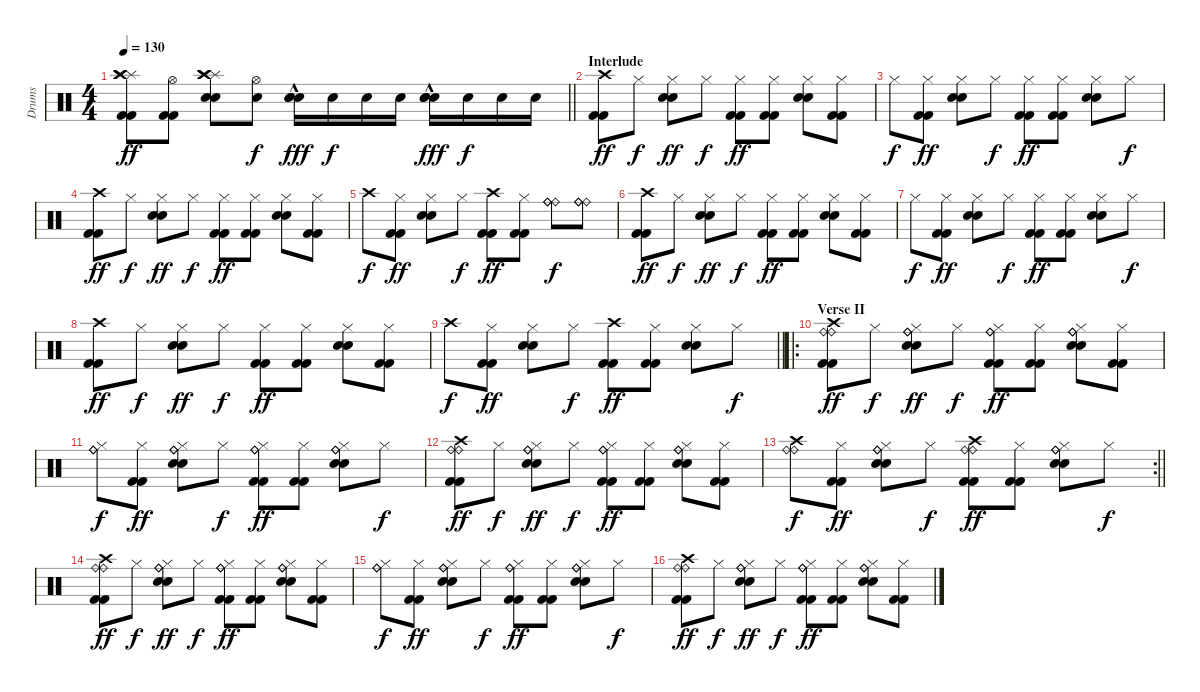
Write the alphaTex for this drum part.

\track ("Drums" "Drums") {instrument percussion}
\staff {score}
\articulation defaults
\ts (4 4)
\tempo 130
\clef neutral
\barLineRight lightlight
\ks c
("Kick (hit) 2" "Kick (hit) 2" "Splash (hit)" "Crash high (hit)" "Crash high (hit)").8{dy ff} ("Kick (hit) 2" "Kick (hit) 2" "Hi-Hat (open)").8 ("Electric Snare (hit)" "Electric Snare (hit)" "Splash (hit)" "Crash high (hit)" "Crash high (hit)").8 ("Electric Snare (hit)" "Hi-Hat (open)").8{dy f} ("Snare (hit) 2"{hac} "Electric Snare (hit)"{hac} "Snare (hit) 2"{hac}).16{dy fff} "Electric Snare (hit)".16{dy f} "Electric Snare (hit)".16 "Electric Snare (hit)".16 ("Snare (hit) 2"{hac} "Electric Snare (hit)"{hac} "Snare (hit) 2"{hac}).16{dy fff} "Electric Snare (hit)".16{dy f} "Electric Snare (hit)".16 "Electric Snare (hit)".16 |
\section ("" "Interlude")
("Kick (hit) 2" "Kick (hit) 2" "Crash high (hit)").8{dy ff} "Hi-Hat (closed)".8{dy f} ("Electric Snare (hit)" "Electric Snare (hit)" "Hi-Hat (closed)").8{dy ff} "Hi-Hat (closed)".8{dy f} ("Kick (hit) 2" "Kick (hit) 2" "Hi-Hat (closed)").8{dy ff} ("Kick (hit) 2" "Kick (hit) 2" "Hi-Hat (closed)").8 ("Electric Snare (hit)" "Electric Snare (hit)" "Hi-Hat (closed)").8 ("Kick (hit) 2" "Kick (hit) 2" "Hi-Hat (closed)").8 |
"Hi-Hat (closed)".8{dy f} ("Kick (hit) 2" "Kick (hit) 2" "Hi-Hat (closed)").8{dy ff} ("Electric Snare (hit)" "Electric Snare (hit)" "Hi-Hat (closed)").8 "Hi-Hat (closed)".8{dy f} ("Kick (hit) 2" "Kick (hit) 2" "Hi-Hat (closed)").8{dy ff} ("Kick (hit) 2" "Kick (hit) 2" "Hi-Hat (closed)").8 ("Electric Snare (hit)" "Electric Snare (hit)" "Hi-Hat (closed)").8 "Hi-Hat (closed)".8{dy f} |
("Kick (hit) 2" "Kick (hit) 2" "Crash high (hit)").8{dy ff} "Hi-Hat (closed)".8{dy f} ("Electric Snare (hit)" "Electric Snare (hit)" "Hi-Hat (closed)").8{dy ff} "Hi-Hat (closed)".8{dy f} ("Kick (hit) 2" "Kick (hit) 2" "Hi-Hat (closed)").8{dy ff} ("Kick (hit) 2" "Kick (hit) 2" "Hi-Hat (closed)").8 ("Electric Snare (hit)" "Electric Snare (hit)" "Hi-Hat (closed)").8 ("Kick (hit) 2" "Kick (hit) 2" "Hi-Hat (closed)").8 |
"Crash high (hit)".8{dy f} ("Kick (hit) 2" "Kick (hit) 2" "Hi-Hat (closed)").8{dy ff} ("Electric Snare (hit)" "Electric Snare (hit)" "Hi-Hat (closed)").8 "Hi-Hat (closed)".8{dy f} ("Kick (hit) 2" "Kick (hit) 2" "Crash high (hit)").8{dy ff} ("Kick (hit) 2" "Kick (hit) 2" "Hi-Hat (closed)").8 ("Ride (bell)" "Ride (bell)" "Ride (bell)").8{dy f} ("Ride (bell)" "Ride (bell)" "Ride (bell)").8 |
("Kick (hit) 2" "Kick (hit) 2" "Crash high (hit)").8{dy ff} "Hi-Hat (closed)".8{dy f} ("Electric Snare (hit)" "Electric Snare (hit)" "Hi-Hat (closed)").8{dy ff} "Hi-Hat (closed)".8{dy f} ("Kick (hit) 2" "Kick (hit) 2" "Hi-Hat (closed)").8{dy ff} ("Kick (hit) 2" "Kick (hit) 2" "Hi-Hat (closed)").8 ("Electric Snare (hit)" "Electric Snare (hit)" "Hi-Hat (closed)").8 ("Kick (hit) 2" "Kick (hit) 2" "Hi-Hat (closed)").8 |
"Hi-Hat (closed)".8{dy f} ("Kick (hit) 2" "Kick (hit) 2" "Hi-Hat (closed)").8{dy ff} ("Electric Snare (hit)" "Electric Snare (hit)" "Hi-Hat (closed)").8 "Hi-Hat (closed)".8{dy f} ("Kick (hit) 2" "Kick (hit) 2" "Hi-Hat (closed)").8{dy ff} ("Kick (hit) 2" "Kick (hit) 2" "Hi-Hat (closed)").8 ("Electric Snare (hit)" "Electric Snare (hit)" "Hi-Hat (closed)").8 "Hi-Hat (closed)".8{dy f} |
("Kick (hit) 2" "Kick (hit) 2" "Crash high (hit)").8{dy ff} "Hi-Hat (closed)".8{dy f} ("Electric Snare (hit)" "Electric Snare (hit)" "Hi-Hat (closed)").8{dy ff} "Hi-Hat (closed)".8{dy f} ("Kick (hit) 2" "Kick (hit) 2" "Hi-Hat (closed)").8{dy ff} ("Kick (hit) 2" "Kick (hit) 2" "Hi-Hat (closed)").8 ("Electric Snare (hit)" "Electric Snare (hit)" "Hi-Hat (closed)").8 ("Kick (hit) 2" "Kick (hit) 2" "Hi-Hat (closed)").8 |
\barLineRight lightlight "Crash high (hit)".8{dy f}
("Kick (hit) 2" "Kick (hit) 2" "Hi-Hat (closed)").8{dy ff} ("Electric Snare (hit)" "Electric Snare (hit)" "Hi-Hat (closed)").8 "Hi-Hat (closed)".8{dy f} ("Kick (hit) 2" "Kick (hit) 2" "Crash high (hit)").8{dy ff} ("Kick (hit) 2" "Kick (hit) 2" "Hi-Hat (closed)").8 ("Electric Snare (hit)" "Electric Snare (hit)" "Hi-Hat (closed)").8 "Hi-Hat (closed)".8{dy f} |
\ro
\section ("" "Verse II")
("Kick (hit) 2" "Kick (hit) 2" "Ride (bell)" "Ride (bell)" "Crash high (hit)").8{dy ff} "Hi-Hat (closed)".8{dy f} ("Electric Snare (hit)" "Electric Snare (hit)" "Ride (bell)" "Ride (bell)" "Hi-Hat (closed)").8{dy ff} "Hi-Hat (closed)".8{dy f} ("Kick (hit) 2" "Kick (hit) 2" "Ride (bell)" "Ride (bell)" "Hi-Hat (closed)").8{dy ff} ("Kick (hit) 2" "Kick (hit) 2" "Hi-Hat (closed)").8 ("Electric Snare (hit)" "Electric Snare (hit)" "Ride (bell)" "Ride (bell)" "Hi-Hat (closed)").8 ("Kick (hit) 2" "Kick (hit) 2" "Hi-Hat (closed)").8 |
("Ride (bell)" "Ride (bell)" "Hi-Hat (closed)").8{dy f} ("Kick (hit) 2" "Kick (hit) 2" "Hi-Hat (closed)").8{dy ff} ("Electric Snare (hit)" "Electric Snare (hit)" "Ride (bell)" "Ride (bell)" "Hi-Hat (closed)").8 "Hi-Hat (closed)".8{dy f} ("Kick (hit) 2" "Kick (hit) 2" "Ride (bell)" "Ride (bell)" "Hi-Hat (closed)").8{dy ff} ("Kick (hit) 2" "Kick (hit) 2" "Hi-Hat (closed)").8 ("Electric Snare (hit)" "Electric Snare (hit)" "Ride (bell)" "Ride (bell)" "Hi-Hat (closed)").8 "Hi-Hat (closed)".8{dy f} |
("Kick (hit) 2" "Kick (hit) 2" "Ride (bell)" "Ride (bell)" "Crash high (hit)").8{dy ff} "Hi-Hat (closed)".8{dy f} ("Electric Snare (hit)" "Electric Snare (hit)" "Ride (bell)" "Ride (bell)" "Hi-Hat (closed)").8{dy ff} "Hi-Hat (closed)".8{dy f} ("Kick (hit) 2" "Kick (hit) 2" "Ride (bell)" "Ride (bell)" "Hi-Hat (closed)").8{dy ff} ("Kick (hit) 2" "Kick (hit) 2" "Hi-Hat (closed)").8 ("Electric Snare (hit)" "Electric Snare (hit)" "Ride (bell)" "Ride (bell)" "Hi-Hat (closed)").8 ("Kick (hit) 2" "Kick (hit) 2" "Hi-Hat (closed)").8 |
\rc 2
\barLineRight lightlight
("Ride (bell)" "Ride (bell)" "Crash high (hit)").8{dy f} ("Kick (hit) 2" "Kick (hit) 2" "Hi-Hat (closed)").8{dy ff} ("Electric Snare (hit)" "Electric Snare (hit)" "Ride (bell)" "Ride (bell)" "Hi-Hat (closed)").8 "Hi-Hat (closed)".8{dy f} ("Kick (hit) 2" "Kick (hit) 2" "Ride (bell)" "Ride (bell)" "Crash high (hit)").8{dy ff} ("Kick (hit) 2" "Kick (hit) 2" "Hi-Hat (closed)").8 ("Electric Snare (hit)" "Electric Snare (hit)" "Ride (bell)" "Ride (bell)" "Hi-Hat (closed)").8 "Hi-Hat (closed)".8{dy f} |
("Kick (hit) 2" "Kick (hit) 2" "Ride (bell)" "Ride (bell)" "Crash high (hit)").8{dy ff} "Hi-Hat (closed)".8{dy f} ("Electric Snare (hit)" "Electric Snare (hit)" "Ride (bell)" "Ride (bell)" "Hi-Hat (closed)").8{dy ff} "Hi-Hat (closed)".8{dy f} ("Kick (hit) 2" "Kick (hit) 2" "Ride (bell)" "Ride (bell)" "Hi-Hat (closed)").8{dy ff} ("Kick (hit) 2" "Kick (hit) 2" "Hi-Hat (closed)").8 ("Electric Snare (hit)" "Electric Snare (hit)" "Ride (bell)" "Ride (bell)" "Hi-Hat (closed)").8 ("Kick (hit) 2" "Kick (hit) 2" "Hi-Hat (closed)").8 |
("Ride (bell)" "Ride (bell)" "Hi-Hat (closed)").8{dy f} ("Kick (hit) 2" "Kick (hit) 2" "Hi-Hat (closed)").8{dy ff} ("Electric Snare (hit)" "Electric Snare (hit)" "Ride (bell)" "Ride (bell)" "Hi-Hat (closed)").8 "Hi-Hat (closed)".8{dy f} ("Kick (hit) 2" "Kick (hit) 2" "Ride (bell)" "Ride (bell)" "Hi-Hat (closed)").8{dy ff} ("Kick (hit) 2" "Kick (hit) 2" "Hi-Hat (closed)").8 ("Electric Snare (hit)" "Electric Snare (hit)" "Ride (bell)" "Ride (bell)" "Hi-Hat (closed)").8 "Hi-Hat (closed)".8{dy f} |
("Kick (hit) 2" "Kick (hit) 2" "Ride (bell)" "Ride (bell)" "Crash high (hit)").8{dy ff} "Hi-Hat (closed)".8{dy f} ("Electric Snare (hit)" "Electric Snare (hit)" "Ride (bell)" "Ride (bell)" "Hi-Hat (closed)").8{dy ff} "Hi-Hat (closed)".8{dy f} ("Kick (hit) 2" "Kick (hit) 2" "Ride (bell)" "Ride (bell)" "Hi-Hat (closed)").8{dy ff} ("Kick (hit) 2" "Kick (hit) 2" "Hi-Hat (closed)").8 ("Electric Snare (hit)" "Electric Snare (hit)" "Ride (bell)" "Ride (bell)" "Hi-Hat (closed)").8 ("Kick (hit) 2" "Kick (hit) 2" "Hi-Hat (closed)").8
